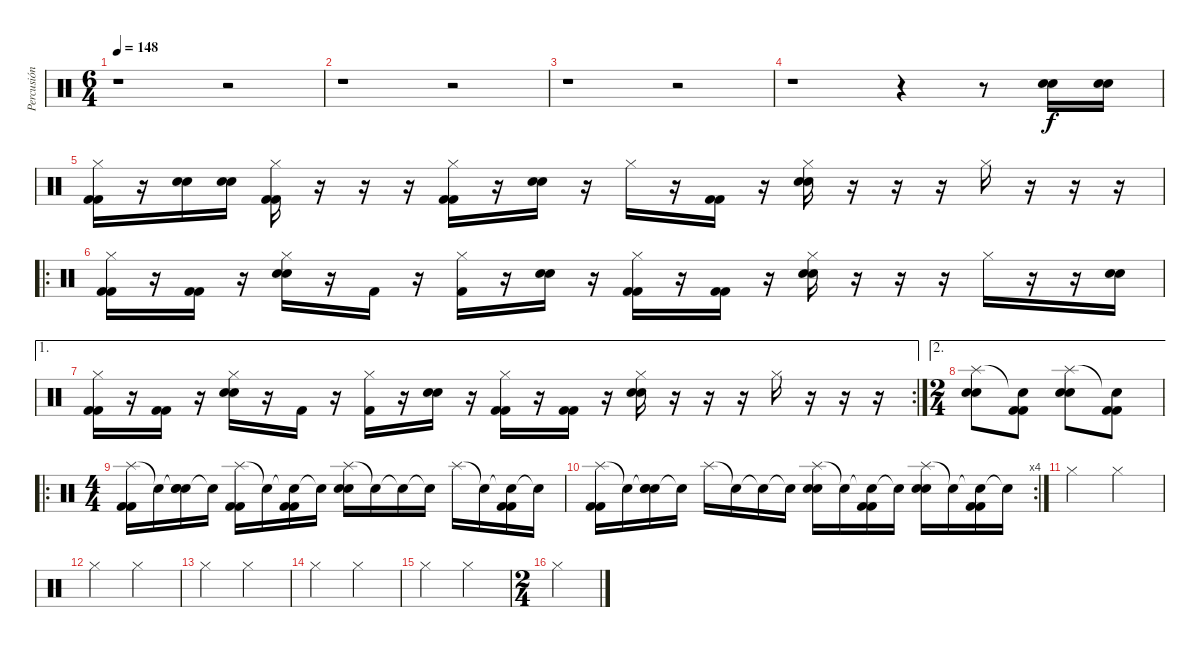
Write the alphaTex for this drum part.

\track ("Percusión" "Percusión") {instrument percussion}
\staff {score}
\articulation defaults
\ts (6 4)
\tempo 148
\clef neutral
\ks c
r.1{dy f} r.2 |
r.1 r.2 |
r.1 r.2 |
r.1 r.4 r.8 ("Electric Snare (hit)" "Electric Snare (hit)").16 ("Electric Snare (hit)" "Electric Snare (hit)").16 |
("Hi-Hat (closed)" "Kick (hit) 2" "Kick (hit) 2").16 r.16 ("Electric Snare (hit)" "Electric Snare (hit)").16 ("Electric Snare (hit)" "Electric Snare (hit)").16 ("Hi-Hat (closed)" "Kick (hit) 2" "Kick (hit) 2").16 r.16 r.16 r.16 ("Hi-Hat (closed)" "Kick (hit) 2" "Kick (hit) 2").16 r.16 ("Electric Snare (hit)" "Electric Snare (hit)").16 r.16 "Hi-Hat (closed)".16 r.16 ("Kick (hit) 2" "Kick (hit) 2").16 r.16 ("Hi-Hat (closed)" "Electric Snare (hit)" "Electric Snare (hit)").16 r.16 r.16 r.16 "Hi-Hat (closed)".16 r.16 r.16 r.16 |
\ro
("Hi-Hat (closed)" "Kick (hit) 2" "Kick (hit) 2").16 r.16 ("Kick (hit) 2" "Kick (hit) 2").16 r.16 ("Hi-Hat (closed)" "Electric Snare (hit)" "Electric Snare (hit)").16 r.16 "Kick (hit) 2".16 r.16 ("Hi-Hat (closed)" "Kick (hit) 2").16 r.16 ("Electric Snare (hit)" "Electric Snare (hit)").16 r.16 ("Hi-Hat (closed)" "Kick (hit) 2" "Kick (hit) 2").16 r.16 ("Kick (hit) 2" "Kick (hit) 2").16 r.16 ("Hi-Hat (closed)" "Electric Snare (hit)" "Electric Snare (hit)").16 r.16 r.16 r.16 "Hi-Hat (closed)".16 r.16 r.16 ("Electric Snare (hit)" "Electric Snare (hit)").16 |
\ae 1
\rc 2
("Hi-Hat (closed)" "Kick (hit) 2" "Kick (hit) 2").16 r.16 ("Kick (hit) 2" "Kick (hit) 2").16 r.16 ("Hi-Hat (closed)" "Electric Snare (hit)" "Electric Snare (hit)").16 r.16 "Kick (hit) 2".16 r.16 ("Hi-Hat (closed)" "Kick (hit) 2").16 r.16 ("Electric Snare (hit)" "Electric Snare (hit)").16 r.16 ("Hi-Hat (closed)" "Kick (hit) 2" "Kick (hit) 2").16 r.16 ("Kick (hit) 2" "Kick (hit) 2").16 r.16 ("Hi-Hat (closed)" "Electric Snare (hit)" "Electric Snare (hit)").16 r.16 r.16 r.16 "Hi-Hat (closed)".16 r.16 r.16 r.16 |
\ae 2
\ts (2 4)
("Splash (hit)" "Electric Snare (hit)" "Electric Snare (hit)").8 ("Snare (hit)"{t} "Kick (hit) 2" "Kick (hit) 2").8 ("Splash (hit)" "Electric Snare (hit)" "Electric Snare (hit)").8 ("Snare (hit)"{t} "Kick (hit) 2" "Kick (hit) 2").8 |
\ro
\ts (4 4)
("Splash (hit)" "Kick (hit) 2" "Kick (hit) 2").16 "Snare (hit)"{t}.16 ("Snare (hit)"{t} "Electric Snare (hit)" "Electric Snare (hit)").16 "Snare (hit)"{t}.16 ("Splash (hit)" "Kick (hit) 2" "Kick (hit) 2").16 "Snare (hit)"{t}.16 ("Snare (hit)"{t} "Kick (hit) 2" "Kick (hit) 2").16 "Snare (hit)"{t}.16 ("Splash (hit)" "Electric Snare (hit)" "Electric Snare (hit)").16 "Snare (hit)"{t}.16 "Snare (hit)"{t}.16 "Snare (hit)"{t}.16 "Splash (hit)".16 "Snare (hit)"{t}.16 ("Snare (hit)"{t} "Kick (hit) 2" "Kick (hit) 2").16 "Snare (hit)"{t}.16 |
\rc 4
("Splash (hit)" "Kick (hit) 2" "Kick (hit) 2").16 "Snare (hit)"{t}.16 ("Snare (hit)"{t} "Electric Snare (hit)" "Electric Snare (hit)").16 "Snare (hit)"{t}.16 "Splash (hit)".16 "Snare (hit)"{t}.16 "Snare (hit)"{t}.16 "Snare (hit)"{t}.16 ("Splash (hit)" "Electric Snare (hit)" "Electric Snare (hit)").16 "Snare (hit)"{t}.16 ("Snare (hit)"{t} "Kick (hit) 2" "Kick (hit) 2").16 "Snare (hit)"{t}.16 ("Splash (hit)" "Electric Snare (hit)" "Electric Snare (hit)").16 "Snare (hit)"{t}.16 ("Snare (hit)"{t} "Kick (hit) 2" "Kick (hit) 2").16 "Snare (hit)"{t}.16 |
"Hi-Hat (closed)".2 "Hi-Hat (closed)".2 |
"Hi-Hat (closed)".2 "Hi-Hat (closed)".2 |
"Hi-Hat (closed)".2 "Hi-Hat (closed)".2 |
"Hi-Hat (closed)".2 "Hi-Hat (closed)".2 |
"Hi-Hat (closed)".2 "Hi-Hat (closed)".2 |
\ts (2 4)
"Hi-Hat (closed)".2
